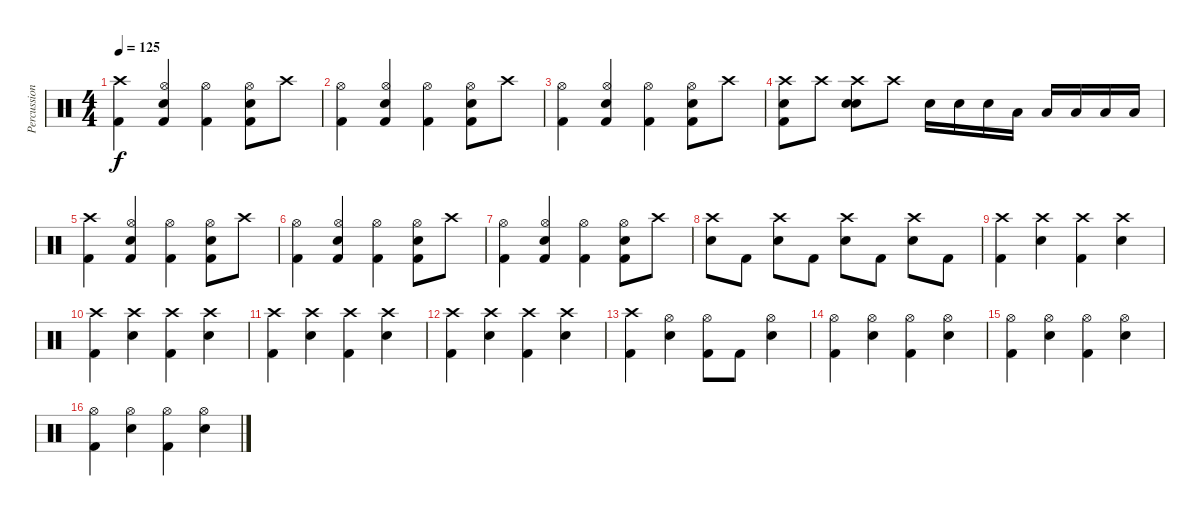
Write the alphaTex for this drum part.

\track ("Percussion" "Percussion") {instrument percussion}
\staff {score}
\articulation defaults
\ts (4 4)
\tempo 125
\clef neutral
\ks c
("Crash high (hit)" "Kick (hit) 2").4{dy f} ("Hi-Hat (open)" "Snare (hit) 2" "Kick (hit) 2").4 ("Hi-Hat (open)" "Kick (hit) 2").4 ("Hi-Hat (open)" "Snare (hit) 2" "Kick (hit) 2").8 "Crash high (hit)".8 |
("Hi-Hat (open)" "Kick (hit) 2").4 ("Hi-Hat (open)" "Snare (hit) 2" "Kick (hit) 2").4 ("Hi-Hat (open)" "Kick (hit) 2").4 ("Hi-Hat (open)" "Snare (hit) 2" "Kick (hit) 2").8 "Crash high (hit)".8 |
("Hi-Hat (open)" "Kick (hit) 2").4 ("Hi-Hat (open)" "Snare (hit) 2" "Kick (hit) 2").4 ("Hi-Hat (open)" "Kick (hit) 2").4 ("Hi-Hat (open)" "Snare (hit) 2" "Kick (hit) 2").8 "Crash high (hit)".8 |
("Crash high (hit)" "Snare (hit) 2" "Kick (hit) 2").8 "Crash high (hit)".8 ("Crash high (hit)" "Snare (hit) 2" "Snare (hit)").8 "Crash high (hit)".8 "Snare (hit) 2".16 "Snare (hit) 2".16 "Snare (hit) 2".16 "Low Tom (hit)".16 "Low Tom (hit)".16 "Low Tom (hit)".16 "Low Floor Tom (hit)".16 "Low Floor Tom (hit)".16 |
("Crash high (hit)" "Kick (hit) 2").4 ("Hi-Hat (open)" "Snare (hit) 2" "Kick (hit) 2").4 ("Hi-Hat (open)" "Kick (hit) 2").4 ("Hi-Hat (open)" "Snare (hit) 2" "Kick (hit) 2").8 "Crash high (hit)".8 |
("Hi-Hat (open)" "Kick (hit) 2").4 ("Hi-Hat (open)" "Snare (hit) 2" "Kick (hit) 2").4 ("Hi-Hat (open)" "Kick (hit) 2").4 ("Hi-Hat (open)" "Snare (hit) 2" "Kick (hit) 2").8 "Crash high (hit)".8 |
("Hi-Hat (open)" "Kick (hit) 2").4 ("Hi-Hat (open)" "Snare (hit) 2" "Kick (hit) 2").4 ("Hi-Hat (open)" "Kick (hit) 2").4 ("Hi-Hat (open)" "Snare (hit) 2" "Kick (hit) 2").8 "Crash high (hit)".8 |
("Crash high (hit)" "Snare (hit) 2").8 "Kick (hit) 2".8 ("Crash high (hit)" "Snare (hit) 2").8 "Kick (hit) 2".8 ("Crash high (hit)" "Snare (hit) 2").8 "Kick (hit) 2".8 ("Crash high (hit)" "Snare (hit) 2").8 "Kick (hit) 2".8 |
("Crash high (hit)" "Kick (hit) 2").4 ("Crash high (hit)" "Snare (hit) 2").4 ("Crash high (hit)" "Kick (hit) 2").4 ("Crash high (hit)" "Snare (hit) 2").4 |
("Crash high (hit)" "Kick (hit) 2").4 ("Crash high (hit)" "Snare (hit) 2").4 ("Crash high (hit)" "Kick (hit) 2").4 ("Crash high (hit)" "Snare (hit) 2").4 |
("Crash high (hit)" "Kick (hit) 2").4 ("Crash high (hit)" "Snare (hit) 2").4 ("Crash high (hit)" "Kick (hit) 2").4 ("Crash high (hit)" "Snare (hit) 2").4 |
("Crash high (hit)" "Kick (hit) 2").4 ("Crash high (hit)" "Snare (hit) 2").4 ("Crash high (hit)" "Kick (hit) 2").4 ("Crash high (hit)" "Snare (hit) 2").4 |
("Crash high (hit)" "Kick (hit) 2").4 ("Hi-Hat (open)" "Snare (hit) 2").4 ("Hi-Hat (open)" "Kick (hit) 2").8 "Kick (hit) 2".8 ("Hi-Hat (open)" "Snare (hit) 2").4 |
("Hi-Hat (open)" "Kick (hit) 2").4 ("Hi-Hat (open)" "Snare (hit) 2").4 ("Hi-Hat (open)" "Kick (hit) 2").4 ("Hi-Hat (open)" "Snare (hit) 2").4 |
("Hi-Hat (open)" "Kick (hit) 2").4 ("Hi-Hat (open)" "Snare (hit) 2").4 ("Hi-Hat (open)" "Kick (hit) 2").4 ("Hi-Hat (open)" "Snare (hit) 2").4 |
("Hi-Hat (open)" "Kick (hit) 2").4 ("Hi-Hat (open)" "Snare (hit) 2").4 ("Hi-Hat (open)" "Kick (hit) 2").4 ("Hi-Hat (open)" "Snare (hit) 2").4
